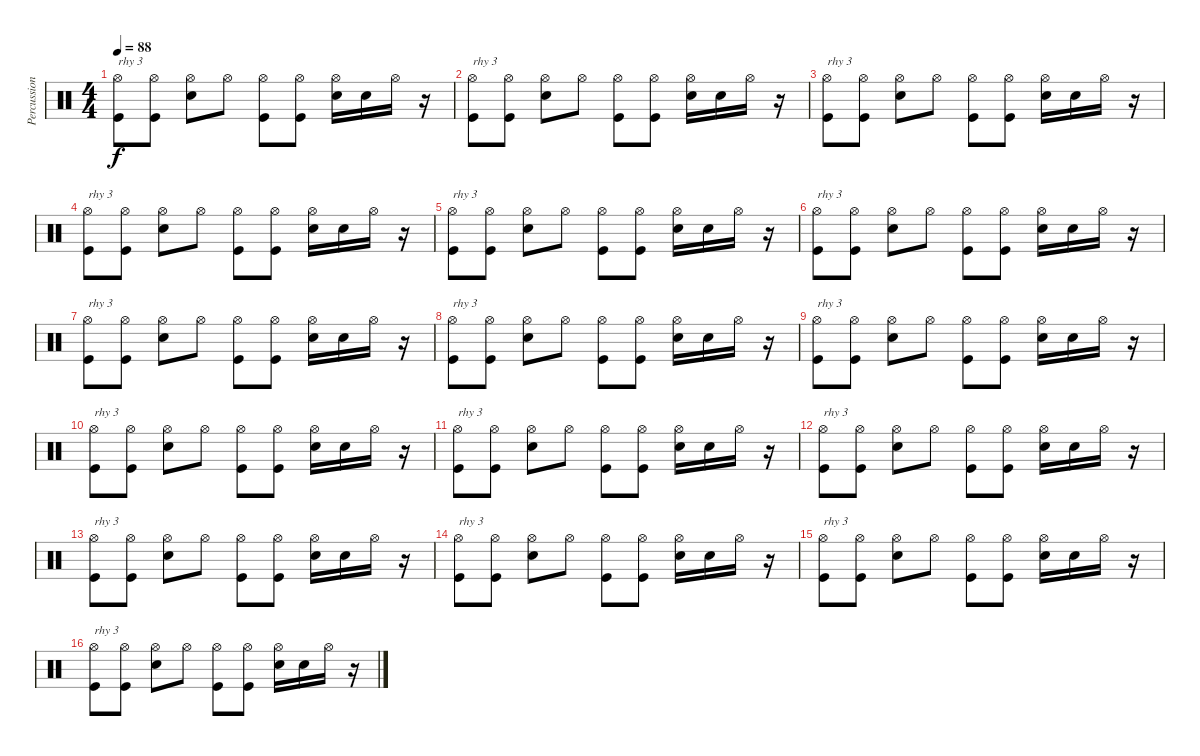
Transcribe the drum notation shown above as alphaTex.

\track ("Percussion" "Percussion") {instrument percussion}
\staff {score}
\articulation defaults
\ts (4 4)
\tempo 88
\clef neutral
\ks c
("Hi-Hat (open)" "Kick (hit)").8{txt "rhy 3" dy f} ("Hi-Hat (open)" "Kick (hit)").8 ("Hi-Hat (open)" "Snare (hit) 2").8 "Hi-Hat (open)".8 ("Hi-Hat (open)" "Kick (hit)").8 ("Hi-Hat (open)" "Kick (hit)").8 ("Hi-Hat (open)" "Snare (hit) 2").16 "Snare (hit) 2".16 "Hi-Hat (open)".16 r.16 |
("Hi-Hat (open)" "Kick (hit)").8{txt "rhy 3"} ("Hi-Hat (open)" "Kick (hit)").8 ("Hi-Hat (open)" "Snare (hit) 2").8 "Hi-Hat (open)".8 ("Hi-Hat (open)" "Kick (hit)").8 ("Hi-Hat (open)" "Kick (hit)").8 ("Hi-Hat (open)" "Snare (hit) 2").16 "Snare (hit) 2".16 "Hi-Hat (open)".16 r.16 |
("Hi-Hat (open)" "Kick (hit)").8{txt "rhy 3"} ("Hi-Hat (open)" "Kick (hit)").8 ("Hi-Hat (open)" "Snare (hit) 2").8 "Hi-Hat (open)".8 ("Hi-Hat (open)" "Kick (hit)").8 ("Hi-Hat (open)" "Kick (hit)").8 ("Hi-Hat (open)" "Snare (hit) 2").16 "Snare (hit) 2".16 "Hi-Hat (open)".16 r.16 |
("Hi-Hat (open)" "Kick (hit)").8{txt "rhy 3"} ("Hi-Hat (open)" "Kick (hit)").8 ("Hi-Hat (open)" "Snare (hit) 2").8 "Hi-Hat (open)".8 ("Hi-Hat (open)" "Kick (hit)").8 ("Hi-Hat (open)" "Kick (hit)").8 ("Hi-Hat (open)" "Snare (hit) 2").16 "Snare (hit) 2".16 "Hi-Hat (open)".16 r.16 |
("Hi-Hat (open)" "Kick (hit)").8{txt "rhy 3"} ("Hi-Hat (open)" "Kick (hit)").8 ("Hi-Hat (open)" "Snare (hit) 2").8 "Hi-Hat (open)".8 ("Hi-Hat (open)" "Kick (hit)").8 ("Hi-Hat (open)" "Kick (hit)").8 ("Hi-Hat (open)" "Snare (hit) 2").16 "Snare (hit) 2".16 "Hi-Hat (open)".16 r.16 |
("Hi-Hat (open)" "Kick (hit)").8{txt "rhy 3"} ("Hi-Hat (open)" "Kick (hit)").8 ("Hi-Hat (open)" "Snare (hit) 2").8 "Hi-Hat (open)".8 ("Hi-Hat (open)" "Kick (hit)").8 ("Hi-Hat (open)" "Kick (hit)").8 ("Hi-Hat (open)" "Snare (hit) 2").16 "Snare (hit) 2".16 "Hi-Hat (open)".16 r.16 |
("Hi-Hat (open)" "Kick (hit)").8{txt "rhy 3"} ("Hi-Hat (open)" "Kick (hit)").8 ("Hi-Hat (open)" "Snare (hit) 2").8 "Hi-Hat (open)".8 ("Hi-Hat (open)" "Kick (hit)").8 ("Hi-Hat (open)" "Kick (hit)").8 ("Hi-Hat (open)" "Snare (hit) 2").16 "Snare (hit) 2".16 "Hi-Hat (open)".16 r.16 |
("Hi-Hat (open)" "Kick (hit)").8{txt "rhy 3"} ("Hi-Hat (open)" "Kick (hit)").8 ("Hi-Hat (open)" "Snare (hit) 2").8 "Hi-Hat (open)".8 ("Hi-Hat (open)" "Kick (hit)").8 ("Hi-Hat (open)" "Kick (hit)").8 ("Hi-Hat (open)" "Snare (hit) 2").16 "Snare (hit) 2".16 "Hi-Hat (open)".16 r.16 |
("Hi-Hat (open)" "Kick (hit)").8{txt "rhy 3"} ("Hi-Hat (open)" "Kick (hit)").8 ("Hi-Hat (open)" "Snare (hit) 2").8 "Hi-Hat (open)".8 ("Hi-Hat (open)" "Kick (hit)").8 ("Hi-Hat (open)" "Kick (hit)").8 ("Hi-Hat (open)" "Snare (hit) 2").16 "Snare (hit) 2".16 "Hi-Hat (open)".16 r.16 |
("Hi-Hat (open)" "Kick (hit)").8{txt "rhy 3"} ("Hi-Hat (open)" "Kick (hit)").8 ("Hi-Hat (open)" "Snare (hit) 2").8 "Hi-Hat (open)".8 ("Hi-Hat (open)" "Kick (hit)").8 ("Hi-Hat (open)" "Kick (hit)").8 ("Hi-Hat (open)" "Snare (hit) 2").16 "Snare (hit) 2".16 "Hi-Hat (open)".16 r.16 |
("Hi-Hat (open)" "Kick (hit)").8{txt "rhy 3"} ("Hi-Hat (open)" "Kick (hit)").8 ("Hi-Hat (open)" "Snare (hit) 2").8 "Hi-Hat (open)".8 ("Hi-Hat (open)" "Kick (hit)").8 ("Hi-Hat (open)" "Kick (hit)").8 ("Hi-Hat (open)" "Snare (hit) 2").16 "Snare (hit) 2".16 "Hi-Hat (open)".16 r.16 |
("Hi-Hat (open)" "Kick (hit)").8{txt "rhy 3"} ("Hi-Hat (open)" "Kick (hit)").8 ("Hi-Hat (open)" "Snare (hit) 2").8 "Hi-Hat (open)".8 ("Hi-Hat (open)" "Kick (hit)").8 ("Hi-Hat (open)" "Kick (hit)").8 ("Hi-Hat (open)" "Snare (hit) 2").16 "Snare (hit) 2".16 "Hi-Hat (open)".16 r.16 |
("Hi-Hat (open)" "Kick (hit)").8{txt "rhy 3"} ("Hi-Hat (open)" "Kick (hit)").8 ("Hi-Hat (open)" "Snare (hit) 2").8 "Hi-Hat (open)".8 ("Hi-Hat (open)" "Kick (hit)").8 ("Hi-Hat (open)" "Kick (hit)").8 ("Hi-Hat (open)" "Snare (hit) 2").16 "Snare (hit) 2".16 "Hi-Hat (open)".16 r.16 |
("Hi-Hat (open)" "Kick (hit)").8{txt "rhy 3"} ("Hi-Hat (open)" "Kick (hit)").8 ("Hi-Hat (open)" "Snare (hit) 2").8 "Hi-Hat (open)".8 ("Hi-Hat (open)" "Kick (hit)").8 ("Hi-Hat (open)" "Kick (hit)").8 ("Hi-Hat (open)" "Snare (hit) 2").16 "Snare (hit) 2".16 "Hi-Hat (open)".16 r.16 |
("Hi-Hat (open)" "Kick (hit)").8{txt "rhy 3"} ("Hi-Hat (open)" "Kick (hit)").8 ("Hi-Hat (open)" "Snare (hit) 2").8 "Hi-Hat (open)".8 ("Hi-Hat (open)" "Kick (hit)").8 ("Hi-Hat (open)" "Kick (hit)").8 ("Hi-Hat (open)" "Snare (hit) 2").16 "Snare (hit) 2".16 "Hi-Hat (open)".16 r.16 |
("Hi-Hat (open)" "Kick (hit)").8{txt "rhy 3"} ("Hi-Hat (open)" "Kick (hit)").8 ("Hi-Hat (open)" "Snare (hit) 2").8 "Hi-Hat (open)".8 ("Hi-Hat (open)" "Kick (hit)").8 ("Hi-Hat (open)" "Kick (hit)").8 ("Hi-Hat (open)" "Snare (hit) 2").16 "Snare (hit) 2".16 "Hi-Hat (open)".16 r.16
